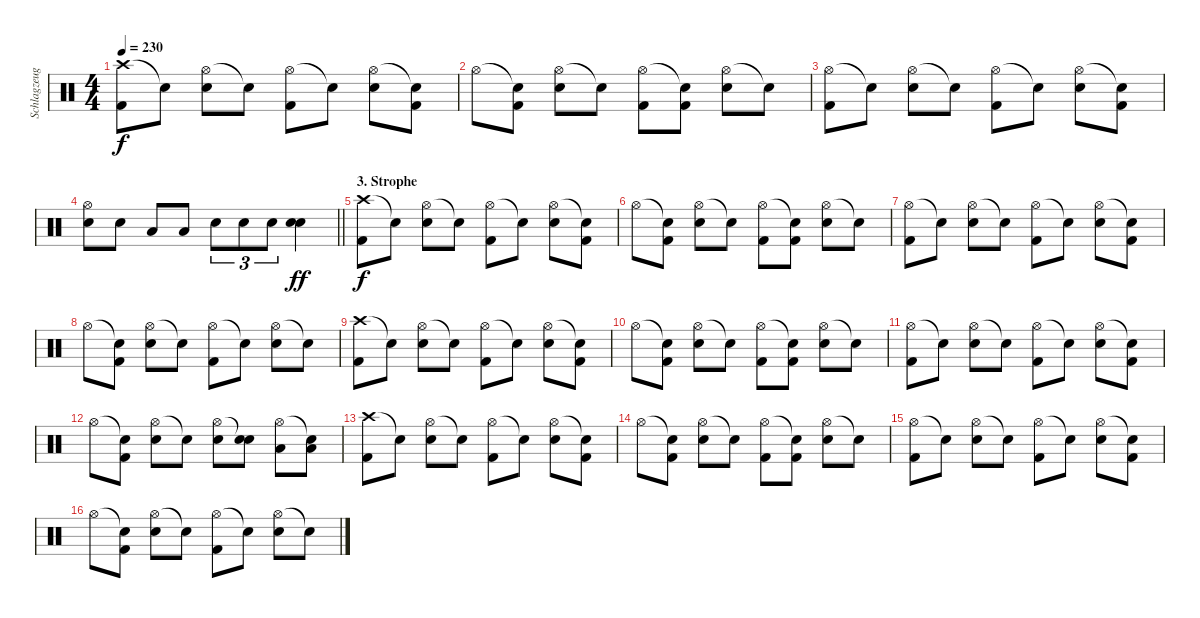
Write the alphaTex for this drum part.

\track ("Schlagzeug" "Schlagzeug") {instrument percussion}
\staff {score}
\articulation defaults
\ts (4 4)
\tempo 230
\clef neutral
\ks c
("Crash high (hit)" "Kick (hit) 2").8{dy f} "Snare (hit)"{t}.8 ("Hi-Hat (open)" "Snare (hit) 2").8 "Snare (hit)"{t}.8 ("Hi-Hat (open)" "Kick (hit) 2").8 "Snare (hit)"{t}.8 ("Hi-Hat (open)" "Snare (hit) 2").8 ("Snare (hit)"{t} "Kick (hit) 2").8 |
"Hi-Hat (open)".8 ("Snare (hit)"{t} "Kick (hit) 2").8 ("Hi-Hat (open)" "Snare (hit) 2").8 "Snare (hit)"{t}.8 ("Hi-Hat (open)" "Kick (hit) 2").8 ("Snare (hit)"{t} "Kick (hit) 2").8 ("Hi-Hat (open)" "Snare (hit) 2").8 "Snare (hit)"{t}.8 |
("Hi-Hat (open)" "Kick (hit) 2").8 "Snare (hit)"{t}.8 ("Hi-Hat (open)" "Snare (hit) 2").8 "Snare (hit)"{t}.8 ("Hi-Hat (open)" "Kick (hit) 2").8 "Snare (hit)"{t}.8 ("Hi-Hat (open)" "Snare (hit) 2").8 ("Snare (hit)"{t} "Kick (hit) 2").8 |
\barLineRight lightlight
("Snare (hit) 2" "Hi-Hat (open)").8 "Snare (hit) 2".8 "Low Tom (hit)".8 "Low Tom (hit)".8 "Electric Snare (hit)".8{tu (3 2)} "Electric Snare (hit)".8{tu (3 2)} "Electric Snare (hit)".8{tu (3 2)} ("Electric Snare (hit)" "Electric Snare (hit)").4{dy ff} |
\section ("" "3. Strophe")
("Crash high (hit)" "Kick (hit) 2").8{dy f} "Snare (hit)"{t}.8 ("Hi-Hat (open)" "Snare (hit) 2").8 "Snare (hit)"{t}.8 ("Hi-Hat (open)" "Kick (hit) 2").8 "Snare (hit)"{t}.8 ("Hi-Hat (open)" "Snare (hit) 2").8 ("Snare (hit)"{t} "Kick (hit) 2").8 |
"Hi-Hat (open)".8 ("Snare (hit)"{t} "Kick (hit) 2").8 ("Hi-Hat (open)" "Snare (hit) 2").8 "Snare (hit)"{t}.8 ("Hi-Hat (open)" "Kick (hit) 2").8 ("Snare (hit)"{t} "Kick (hit) 2").8 ("Hi-Hat (open)" "Snare (hit) 2").8 "Snare (hit)"{t}.8 |
("Hi-Hat (open)" "Kick (hit) 2").8 "Snare (hit)"{t}.8 ("Hi-Hat (open)" "Snare (hit) 2").8 "Snare (hit)"{t}.8 ("Hi-Hat (open)" "Kick (hit) 2").8 "Snare (hit)"{t}.8 ("Hi-Hat (open)" "Snare (hit) 2").8 ("Snare (hit)"{t} "Kick (hit) 2").8 |
"Hi-Hat (open)".8 ("Snare (hit)"{t} "Kick (hit) 2").8 ("Hi-Hat (open)" "Snare (hit) 2").8 "Snare (hit)"{t}.8 ("Hi-Hat (open)" "Kick (hit) 2").8 "Snare (hit)"{t}.8 ("Hi-Hat (open)" "Snare (hit) 2").8 "Snare (hit)"{t}.8 |
("Crash high (hit)" "Kick (hit) 2").8 "Snare (hit)"{t}.8 ("Hi-Hat (open)" "Snare (hit) 2").8 "Snare (hit)"{t}.8 ("Hi-Hat (open)" "Kick (hit) 2").8 "Snare (hit)"{t}.8 ("Hi-Hat (open)" "Snare (hit) 2").8 ("Snare (hit)"{t} "Kick (hit) 2").8 |
"Hi-Hat (open)".8 ("Snare (hit)"{t} "Kick (hit) 2").8 ("Hi-Hat (open)" "Snare (hit) 2").8 "Snare (hit)"{t}.8 ("Hi-Hat (open)" "Kick (hit) 2").8 ("Snare (hit)"{t} "Kick (hit) 2").8 ("Hi-Hat (open)" "Snare (hit) 2").8 "Snare (hit)"{t}.8 |
("Hi-Hat (open)" "Kick (hit) 2").8 "Snare (hit)"{t}.8 ("Hi-Hat (open)" "Snare (hit) 2").8 "Snare (hit)"{t}.8 ("Hi-Hat (open)" "Kick (hit) 2").8 "Snare (hit)"{t}.8 ("Hi-Hat (open)" "Snare (hit) 2").8 ("Snare (hit)"{t} "Kick (hit) 2").8 |
"Hi-Hat (open)".8 ("Snare (hit)"{t} "Kick (hit) 2").8 ("Hi-Hat (open)" "Snare (hit) 2").8 "Snare (hit)"{t}.8 ("Hi-Hat (open)" "Snare (hit) 2").8 ("Snare (hit)"{t} "Snare (hit) 2").8 ("Hi-Hat (open)" "Low Tom (hit)").8 ("Snare (hit)"{t} "Low Tom (hit)").8 |
("Crash high (hit)" "Kick (hit) 2").8 "Snare (hit)"{t}.8 ("Hi-Hat (open)" "Snare (hit) 2").8 "Snare (hit)"{t}.8 ("Hi-Hat (open)" "Kick (hit) 2").8 "Snare (hit)"{t}.8 ("Hi-Hat (open)" "Snare (hit) 2").8 ("Snare (hit)"{t} "Kick (hit) 2").8 |
"Hi-Hat (open)".8 ("Snare (hit)"{t} "Kick (hit) 2").8 ("Hi-Hat (open)" "Snare (hit) 2").8 "Snare (hit)"{t}.8 ("Hi-Hat (open)" "Kick (hit) 2").8 ("Snare (hit)"{t} "Kick (hit) 2").8 ("Hi-Hat (open)" "Snare (hit) 2").8 "Snare (hit)"{t}.8 |
("Hi-Hat (open)" "Kick (hit) 2").8 "Snare (hit)"{t}.8 ("Hi-Hat (open)" "Snare (hit) 2").8 "Snare (hit)"{t}.8 ("Hi-Hat (open)" "Kick (hit) 2").8 "Snare (hit)"{t}.8 ("Hi-Hat (open)" "Snare (hit) 2").8 ("Snare (hit)"{t} "Kick (hit) 2").8 |
"Hi-Hat (open)".8 ("Snare (hit)"{t} "Kick (hit) 2").8 ("Hi-Hat (open)" "Snare (hit) 2").8 "Snare (hit)"{t}.8 ("Hi-Hat (open)" "Kick (hit) 2").8 "Snare (hit)"{t}.8 ("Hi-Hat (open)" "Snare (hit) 2").8 "Snare (hit)"{t}.8
